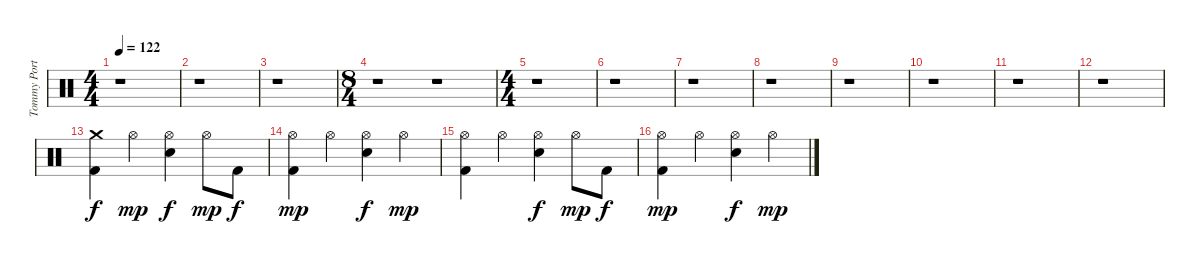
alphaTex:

\track ("Tommy Portino" "Tommy Port") {instrument percussion}
\staff {score}
\articulation defaults
\ts (4 4)
\tempo 122
\clef neutral
\ks c
r.1{dy f} |
r.1 |
r.1 |
\ts (8 4)
r.1 r.1 |
\ts (4 4)
r.1 |
r.1 |
r.1 |
r.1 |
r.1 |
r.1 |
r.1 |
r.1 |
("Crash medium (hit)" "Kick (hit) 2").4 "Hi-Hat (open)".4{dy mp} ("Hi-Hat (open)" "Snare (hit) 2").4{dy f} "Hi-Hat (open)".8{dy mp} "Kick (hit) 2".8{dy f} |
("Hi-Hat (open)" "Kick (hit) 2").4{dy mp} "Hi-Hat (open)".4 ("Hi-Hat (open)" "Snare (hit) 2").4{dy f} "Hi-Hat (open)".4{dy mp} |
("Hi-Hat (open)" "Kick (hit) 2").4 "Hi-Hat (open)".4 ("Hi-Hat (open)" "Snare (hit) 2").4{dy f} "Hi-Hat (open)".8{dy mp} "Kick (hit) 2".8{dy f} |
("Hi-Hat (open)" "Kick (hit) 2").4{dy mp} "Hi-Hat (open)".4 ("Hi-Hat (open)" "Snare (hit) 2").4{dy f} "Hi-Hat (open)".4{dy mp}
